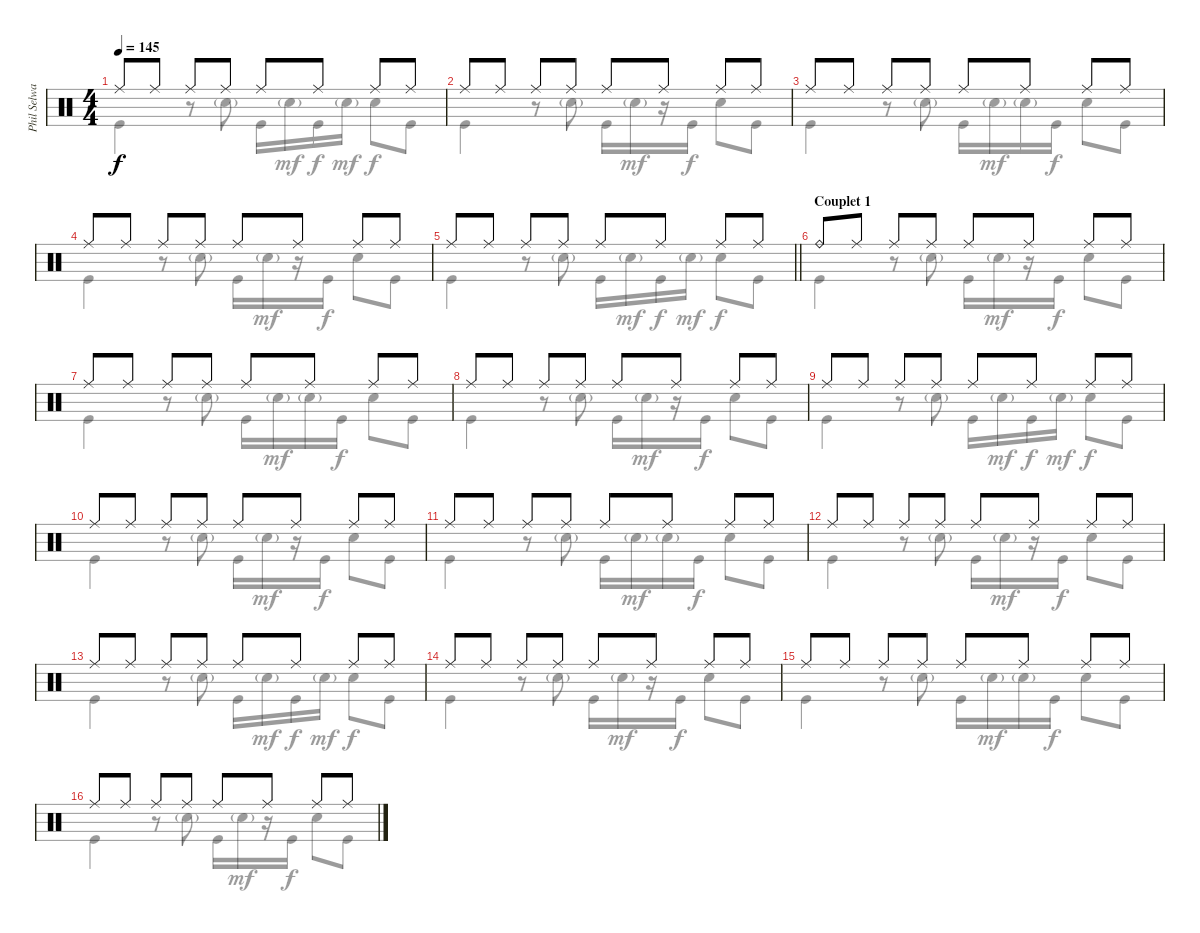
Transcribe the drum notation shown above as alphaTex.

\track ("Phil Selway" "Phil Selwa") {instrument percussion}
\staff {score}
\articulation defaults
\voice
\ts (4 4)
\tempo 145
\clef neutral
\ks c "Ride (middle)".8{dy f} "Ride (middle)".8 "Ride (middle)".8 "Ride (middle)".8 "Ride (middle)".8 "Ride (middle)".8 "Ride (middle)".8 "Ride (middle)".8
|
"Ride (middle)".8 "Ride (middle)".8 "Ride (middle)".8 "Ride (middle)".8 "Ride (middle)".8 "Ride (middle)".8 "Ride (middle)".8 "Ride (middle)".8 |
"Ride (middle)".8 "Ride (middle)".8 "Ride (middle)".8 "Ride (middle)".8 "Ride (middle)".8 "Ride (middle)".8 "Ride (middle)".8 "Ride (middle)".8 |
"Ride (middle)".8 "Ride (middle)".8 "Ride (middle)".8 "Ride (middle)".8 "Ride (middle)".8 "Ride (middle)".8 "Ride (middle)".8 "Ride (middle)".8 |
\barLineRight lightlight "Ride (middle)".8 "Ride (middle)".8 "Ride (middle)".8 "Ride (middle)".8 "Ride (middle)".8 "Ride (middle)".8 "Ride (middle)".8 "Ride (middle)".8
|
\section ("" "Couplet 1")
"Ride (bell)".8 "Ride (middle)".8 "Ride (middle)".8 "Ride (middle)".8 "Ride (middle)".8 "Ride (middle)".8 "Ride (middle)".8 "Ride (middle)".8 |
"Ride (middle)".8 "Ride (middle)".8 "Ride (middle)".8 "Ride (middle)".8 "Ride (middle)".8 "Ride (middle)".8 "Ride (middle)".8 "Ride (middle)".8 |
"Ride (middle)".8 "Ride (middle)".8 "Ride (middle)".8 "Ride (middle)".8 "Ride (middle)".8 "Ride (middle)".8 "Ride (middle)".8 "Ride (middle)".8 |
"Ride (middle)".8 "Ride (middle)".8 "Ride (middle)".8 "Ride (middle)".8 "Ride (middle)".8 "Ride (middle)".8 "Ride (middle)".8 "Ride (middle)".8 |
"Ride (middle)".8 "Ride (middle)".8 "Ride (middle)".8 "Ride (middle)".8 "Ride (middle)".8 "Ride (middle)".8 "Ride (middle)".8 "Ride (middle)".8 |
"Ride (middle)".8 "Ride (middle)".8 "Ride (middle)".8 "Ride (middle)".8 "Ride (middle)".8 "Ride (middle)".8 "Ride (middle)".8 "Ride (middle)".8 |
"Ride (middle)".8 "Ride (middle)".8 "Ride (middle)".8 "Ride (middle)".8 "Ride (middle)".8 "Ride (middle)".8 "Ride (middle)".8 "Ride (middle)".8 |
"Ride (middle)".8 "Ride (middle)".8 "Ride (middle)".8 "Ride (middle)".8 "Ride (middle)".8 "Ride (middle)".8 "Ride (middle)".8 "Ride (middle)".8 |
"Ride (middle)".8 "Ride (middle)".8 "Ride (middle)".8 "Ride (middle)".8 "Ride (middle)".8 "Ride (middle)".8 "Ride (middle)".8 "Ride (middle)".8 |
"Ride (middle)".8 "Ride (middle)".8 "Ride (middle)".8 "Ride (middle)".8 "Ride (middle)".8 "Ride (middle)".8 "Ride (middle)".8 "Ride (middle)".8 |
"Ride (middle)".8 "Ride (middle)".8 "Ride (middle)".8 "Ride (middle)".8 "Ride (middle)".8 "Ride (middle)".8 "Ride (middle)".8 "Ride (middle)".8
\voice
\clef neutral
\ottava regular
\simile none
\ks c "Kick (hit)".4{dy f}
r.8 "Snare (hit) 2"{g}.8 "Kick (hit)".16 "Snare (hit) 2"{g}.16{dy mf} "Kick (hit)".16{dy f} "Snare (hit) 2"{g}.16{dy mf} "Snare (hit) 2".8{dy f} "Kick (hit)".8 |
"Kick (hit)".4 r.8 "Snare (hit) 2"{g}.8 "Kick (hit)".16 "Snare (hit) 2"{g}.16{dy mf} r.16 "Kick (hit)".16{dy f} "Snare (hit) 2".8 "Kick (hit)".8 |
"Kick (hit)".4 r.8 "Snare (hit) 2"{g}.8 "Kick (hit)".16 "Snare (hit) 2"{g}.16{dy mf} "Snare (hit) 2"{g}.16 "Kick (hit)".16{dy f} "Snare (hit) 2".8 "Kick (hit)".8 |
"Kick (hit)".4 r.8 "Snare (hit) 2"{g}.8 "Kick (hit)".16 "Snare (hit) 2"{g}.16{dy mf} r.16 "Kick (hit)".16{dy f} "Snare (hit) 2".8 "Kick (hit)".8 |
\barLineRight lightlight "Kick (hit)".4
r.8 "Snare (hit) 2"{g}.8 "Kick (hit)".16 "Snare (hit) 2"{g}.16{dy mf} "Kick (hit)".16{dy f} "Snare (hit) 2"{g}.16{dy mf} "Snare (hit) 2".8{dy f} "Kick (hit)".8 |
"Kick (hit)".4 r.8 "Snare (hit) 2"{g}.8 "Kick (hit)".16 "Snare (hit) 2"{g}.16{dy mf} r.16 "Kick (hit)".16{dy f} "Snare (hit) 2".8 "Kick (hit)".8 |
"Kick (hit)".4 r.8 "Snare (hit) 2"{g}.8 "Kick (hit)".16 "Snare (hit) 2"{g}.16{dy mf} "Snare (hit) 2"{g}.16 "Kick (hit)".16{dy f} "Snare (hit) 2".8 "Kick (hit)".8 |
"Kick (hit)".4 r.8 "Snare (hit) 2"{g}.8 "Kick (hit)".16 "Snare (hit) 2"{g}.16{dy mf} r.16 "Kick (hit)".16{dy f} "Snare (hit) 2".8 "Kick (hit)".8 |
"Kick (hit)".4 r.8 "Snare (hit) 2"{g}.8 "Kick (hit)".16 "Snare (hit) 2"{g}.16{dy mf} "Kick (hit)".16{dy f} "Snare (hit) 2"{g}.16{dy mf} "Snare (hit) 2".8{dy f} "Kick (hit)".8 |
"Kick (hit)".4 r.8 "Snare (hit) 2"{g}.8 "Kick (hit)".16 "Snare (hit) 2"{g}.16{dy mf} r.16 "Kick (hit)".16{dy f} "Snare (hit) 2".8 "Kick (hit)".8 |
"Kick (hit)".4 r.8 "Snare (hit) 2"{g}.8 "Kick (hit)".16 "Snare (hit) 2"{g}.16{dy mf} "Snare (hit) 2"{g}.16 "Kick (hit)".16{dy f} "Snare (hit) 2".8 "Kick (hit)".8 |
"Kick (hit)".4 r.8 "Snare (hit) 2"{g}.8 "Kick (hit)".16 "Snare (hit) 2"{g}.16{dy mf} r.16 "Kick (hit)".16{dy f} "Snare (hit) 2".8 "Kick (hit)".8 |
"Kick (hit)".4 r.8 "Snare (hit) 2"{g}.8 "Kick (hit)".16 "Snare (hit) 2"{g}.16{dy mf} "Kick (hit)".16{dy f} "Snare (hit) 2"{g}.16{dy mf} "Snare (hit) 2".8{dy f} "Kick (hit)".8 |
"Kick (hit)".4 r.8 "Snare (hit) 2"{g}.8 "Kick (hit)".16 "Snare (hit) 2"{g}.16{dy mf} r.16 "Kick (hit)".16{dy f} "Snare (hit) 2".8 "Kick (hit)".8 |
"Kick (hit)".4 r.8 "Snare (hit) 2"{g}.8 "Kick (hit)".16 "Snare (hit) 2"{g}.16{dy mf} "Snare (hit) 2"{g}.16 "Kick (hit)".16{dy f} "Snare (hit) 2".8 "Kick (hit)".8 |
"Kick (hit)".4 r.8 "Snare (hit) 2"{g}.8 "Kick (hit)".16 "Snare (hit) 2"{g}.16{dy mf} r.16 "Kick (hit)".16{dy f} "Snare (hit) 2".8 "Kick (hit)".8
